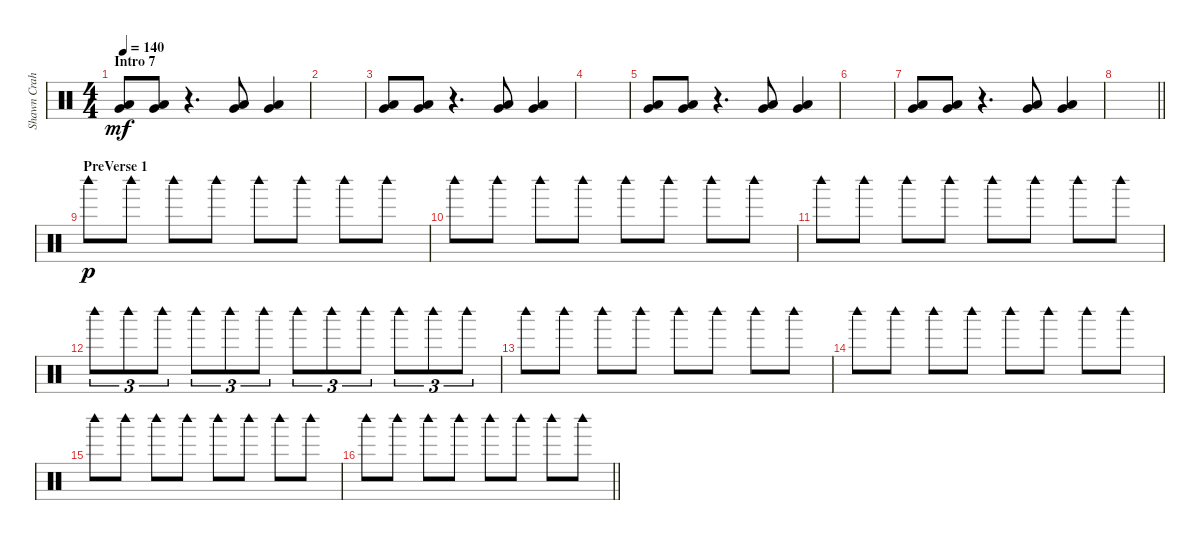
\track ("Shawn Crahan" "Shawn Crah") {instrument percussion}
\staff {score}
\articulation defaults
\ts (4 4)
\section ("" "Intro 7")
\tempo 140
\clef neutral
\ks c
("Very Low Tom (hit)" "Low Floor Tom (hit)").8{dy mf} ("Very Low Tom (hit)" "Low Floor Tom (hit)").8 r.4{d} ("Very Low Tom (hit)" "Low Floor Tom (hit)").8 ("Very Low Tom (hit)" "Low Floor Tom (hit)").4 |
|
("Very Low Tom (hit)" "Low Floor Tom (hit)").8 ("Very Low Tom (hit)" "Low Floor Tom (hit)").8 r.4{d} ("Very Low Tom (hit)" "Low Floor Tom (hit)").8 ("Very Low Tom (hit)" "Low Floor Tom (hit)").4 |
|
("Very Low Tom (hit)" "Low Floor Tom (hit)").8 ("Very Low Tom (hit)" "Low Floor Tom (hit)").8 r.4{d} ("Very Low Tom (hit)" "Low Floor Tom (hit)").8 ("Very Low Tom (hit)" "Low Floor Tom (hit)").4 |
|
("Very Low Tom (hit)" "Low Floor Tom (hit)").8 ("Very Low Tom (hit)" "Low Floor Tom (hit)").8 r.4{d} ("Very Low Tom (hit)" "Low Floor Tom (hit)").8 ("Very Low Tom (hit)" "Low Floor Tom (hit)").4 |
\barLineRight lightlight
|
\section ("" "PreVerse 1")
"Woodblock high (hit)".8{dy p} "Woodblock high (hit)".8 "Woodblock high (hit)".8 "Woodblock high (hit)".8 "Woodblock high (hit)".8 "Woodblock high (hit)".8 "Woodblock high (hit)".8 "Woodblock high (hit)".8 |
"Woodblock high (hit)".8 "Woodblock high (hit)".8 "Woodblock high (hit)".8 "Woodblock high (hit)".8 "Woodblock high (hit)".8 "Woodblock high (hit)".8 "Woodblock high (hit)".8 "Woodblock high (hit)".8 |
"Woodblock high (hit)".8 "Woodblock high (hit)".8 "Woodblock high (hit)".8 "Woodblock high (hit)".8 "Woodblock high (hit)".8 "Woodblock high (hit)".8 "Woodblock high (hit)".8 "Woodblock high (hit)".8 |
"Woodblock high (hit)".8{tu (3 2)} "Woodblock high (hit)".8{tu (3 2)} "Woodblock high (hit)".8{tu (3 2)} "Woodblock high (hit)".8{tu (3 2)} "Woodblock high (hit)".8{tu (3 2)} "Woodblock high (hit)".8{tu (3 2)} "Woodblock high (hit)".8{tu (3 2)} "Woodblock high (hit)".8{tu (3 2)} "Woodblock high (hit)".8{tu (3 2)} "Woodblock high (hit)".8{tu (3 2)} "Woodblock high (hit)".8{tu (3 2)} "Woodblock high (hit)".8{tu (3 2)} |
"Woodblock high (hit)".8 "Woodblock high (hit)".8 "Woodblock high (hit)".8 "Woodblock high (hit)".8 "Woodblock high (hit)".8 "Woodblock high (hit)".8 "Woodblock high (hit)".8 "Woodblock high (hit)".8 |
"Woodblock high (hit)".8 "Woodblock high (hit)".8 "Woodblock high (hit)".8 "Woodblock high (hit)".8 "Woodblock high (hit)".8 "Woodblock high (hit)".8 "Woodblock high (hit)".8 "Woodblock high (hit)".8 |
"Woodblock high (hit)".8 "Woodblock high (hit)".8 "Woodblock high (hit)".8 "Woodblock high (hit)".8 "Woodblock high (hit)".8 "Woodblock high (hit)".8 "Woodblock high (hit)".8 "Woodblock high (hit)".8 |
\barLineRight lightlight "Woodblock high (hit)".8 "Woodblock high (hit)".8 "Woodblock high (hit)".8 "Woodblock high (hit)".8 "Woodblock high (hit)".8 "Woodblock high (hit)".8 "Woodblock high (hit)".8 "Woodblock high (hit)".8
